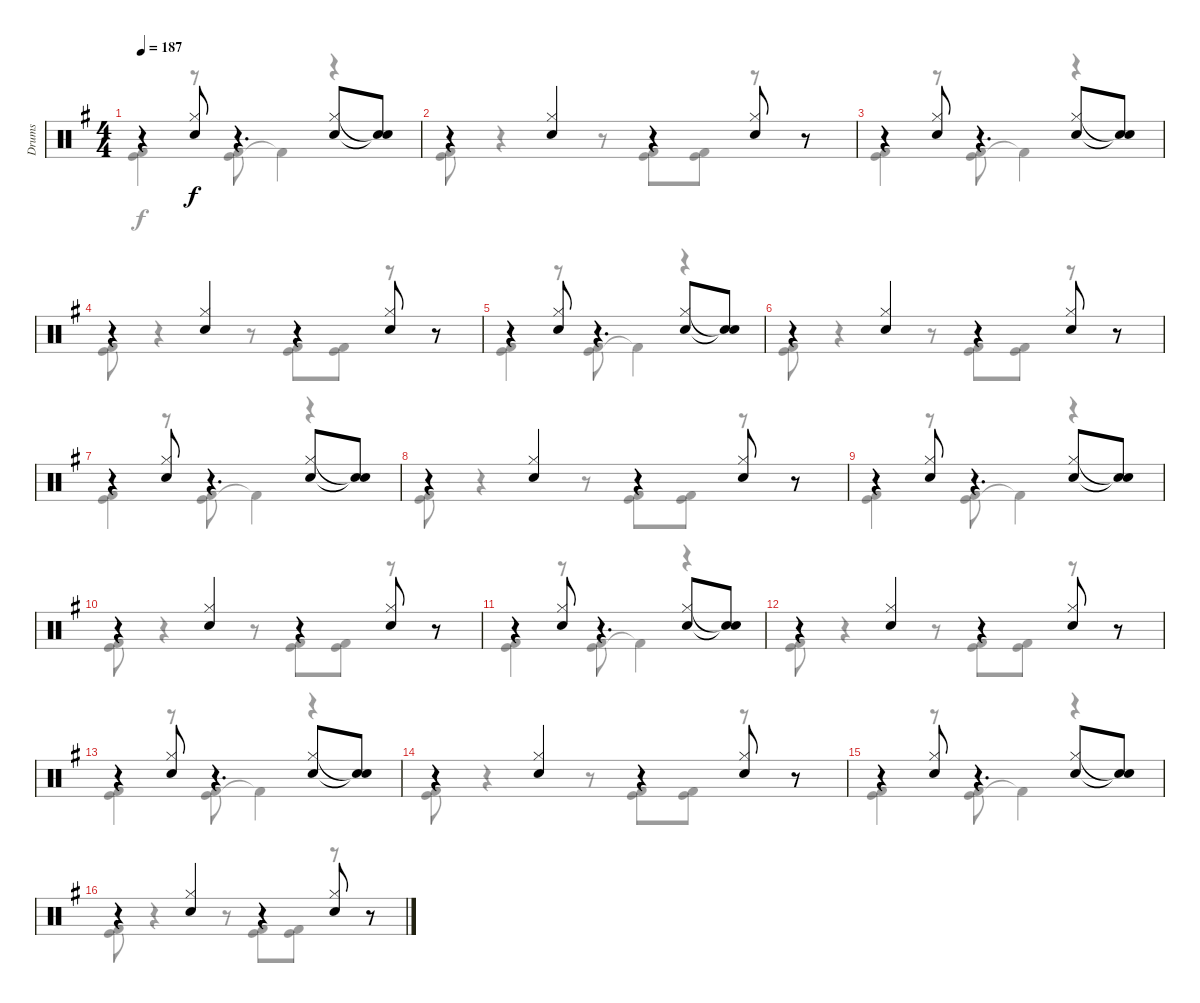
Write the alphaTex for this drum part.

\track ("Drums" "Drums") {instrument percussion}
\staff {score}
\articulation defaults
\voice
\ts (4 4)
\tempo 187
\clef neutral
\ks g
r.4{dy f} ("Hi-Hat (closed)" "Electric Snare (hit)").8 r.4{d} ("Hi-Hat (closed)" "Electric Snare (hit)").8 ("Snare (hit)"{t} "Snare (hit)"{t}).8 |
r.4 ("Hi-Hat (closed)" "Electric Snare (hit)").4 r.4 ("Hi-Hat (closed)" "Electric Snare (hit)").8 r.8 |
r.4 ("Hi-Hat (closed)" "Electric Snare (hit)").8 r.4{d} ("Hi-Hat (closed)" "Electric Snare (hit)").8 ("Snare (hit)"{t} "Snare (hit)"{t}).8 |
r.4 ("Hi-Hat (closed)" "Electric Snare (hit)").4 r.4 ("Hi-Hat (closed)" "Electric Snare (hit)").8 r.8 |
r.4 ("Hi-Hat (closed)" "Electric Snare (hit)").8 r.4{d} ("Hi-Hat (closed)" "Electric Snare (hit)").8 ("Snare (hit)"{t} "Snare (hit)"{t}).8 |
r.4 ("Hi-Hat (closed)" "Electric Snare (hit)").4 r.4 ("Hi-Hat (closed)" "Electric Snare (hit)").8 r.8 |
r.4 ("Hi-Hat (closed)" "Electric Snare (hit)").8 r.4{d} ("Hi-Hat (closed)" "Electric Snare (hit)").8 ("Snare (hit)"{t} "Snare (hit)"{t}).8 |
r.4 ("Hi-Hat (closed)" "Electric Snare (hit)").4 r.4 ("Hi-Hat (closed)" "Electric Snare (hit)").8 r.8 |
r.4 ("Hi-Hat (closed)" "Electric Snare (hit)").8 r.4{d} ("Hi-Hat (closed)" "Electric Snare (hit)").8 ("Snare (hit)"{t} "Snare (hit)"{t}).8 |
r.4 ("Hi-Hat (closed)" "Electric Snare (hit)").4 r.4 ("Hi-Hat (closed)" "Electric Snare (hit)").8 r.8 |
r.4 ("Hi-Hat (closed)" "Electric Snare (hit)").8 r.4{d} ("Hi-Hat (closed)" "Electric Snare (hit)").8 ("Snare (hit)"{t} "Snare (hit)"{t}).8 |
r.4 ("Hi-Hat (closed)" "Electric Snare (hit)").4 r.4 ("Hi-Hat (closed)" "Electric Snare (hit)").8 r.8 |
r.4 ("Hi-Hat (closed)" "Electric Snare (hit)").8 r.4{d} ("Hi-Hat (closed)" "Electric Snare (hit)").8 ("Snare (hit)"{t} "Snare (hit)"{t}).8 |
r.4 ("Hi-Hat (closed)" "Electric Snare (hit)").4 r.4 ("Hi-Hat (closed)" "Electric Snare (hit)").8 r.8 |
r.4 ("Hi-Hat (closed)" "Electric Snare (hit)").8 r.4{d} ("Hi-Hat (closed)" "Electric Snare (hit)").8 ("Snare (hit)"{t} "Snare (hit)"{t}).8 |
r.4 ("Hi-Hat (closed)" "Electric Snare (hit)").4 r.4 ("Hi-Hat (closed)" "Electric Snare (hit)").8 r.8
\voice
\clef neutral
\ottava regular
\simile none
\ks g
("Kick (hit)" "Kick (hit) 2").4{dy f} r.8 ("Kick (hit)" "Kick (hit) 2").8 "Kick (hit) 2"{t}.4 r.4 |
("Kick (hit)" "Kick (hit) 2").8 r.4 r.8 ("Kick (hit)" "Kick (hit) 2").8 ("Kick (hit)" "Kick (hit) 2").8 r.8 r.8 |
("Kick (hit)" "Kick (hit) 2").4 r.8 ("Kick (hit)" "Kick (hit) 2").8 "Kick (hit) 2"{t}.4 r.4 |
("Kick (hit)" "Kick (hit) 2").8 r.4 r.8 ("Kick (hit)" "Kick (hit) 2").8 ("Kick (hit)" "Kick (hit) 2").8 r.8 r.8 |
("Kick (hit)" "Kick (hit) 2").4 r.8 ("Kick (hit)" "Kick (hit) 2").8 "Kick (hit) 2"{t}.4 r.4 |
("Kick (hit)" "Kick (hit) 2").8 r.4 r.8 ("Kick (hit)" "Kick (hit) 2").8 ("Kick (hit)" "Kick (hit) 2").8 r.8 r.8 |
("Kick (hit)" "Kick (hit) 2").4 r.8 ("Kick (hit)" "Kick (hit) 2").8 "Kick (hit) 2"{t}.4 r.4 |
("Kick (hit)" "Kick (hit) 2").8 r.4 r.8 ("Kick (hit)" "Kick (hit) 2").8 ("Kick (hit)" "Kick (hit) 2").8 r.8 r.8 |
("Kick (hit)" "Kick (hit) 2").4 r.8 ("Kick (hit)" "Kick (hit) 2").8 "Kick (hit) 2"{t}.4 r.4 |
("Kick (hit)" "Kick (hit) 2").8 r.4 r.8 ("Kick (hit)" "Kick (hit) 2").8 ("Kick (hit)" "Kick (hit) 2").8 r.8 r.8 |
("Kick (hit)" "Kick (hit) 2").4 r.8 ("Kick (hit)" "Kick (hit) 2").8 "Kick (hit) 2"{t}.4 r.4 |
("Kick (hit)" "Kick (hit) 2").8 r.4 r.8 ("Kick (hit)" "Kick (hit) 2").8 ("Kick (hit)" "Kick (hit) 2").8 r.8 r.8 |
("Kick (hit)" "Kick (hit) 2").4 r.8 ("Kick (hit)" "Kick (hit) 2").8 "Kick (hit) 2"{t}.4 r.4 |
("Kick (hit)" "Kick (hit) 2").8 r.4 r.8 ("Kick (hit)" "Kick (hit) 2").8 ("Kick (hit)" "Kick (hit) 2").8 r.8 r.8 |
("Kick (hit)" "Kick (hit) 2").4 r.8 ("Kick (hit)" "Kick (hit) 2").8 "Kick (hit) 2"{t}.4 r.4 |
("Kick (hit)" "Kick (hit) 2").8 r.4 r.8 ("Kick (hit)" "Kick (hit) 2").8 ("Kick (hit)" "Kick (hit) 2").8 r.8 r.8
